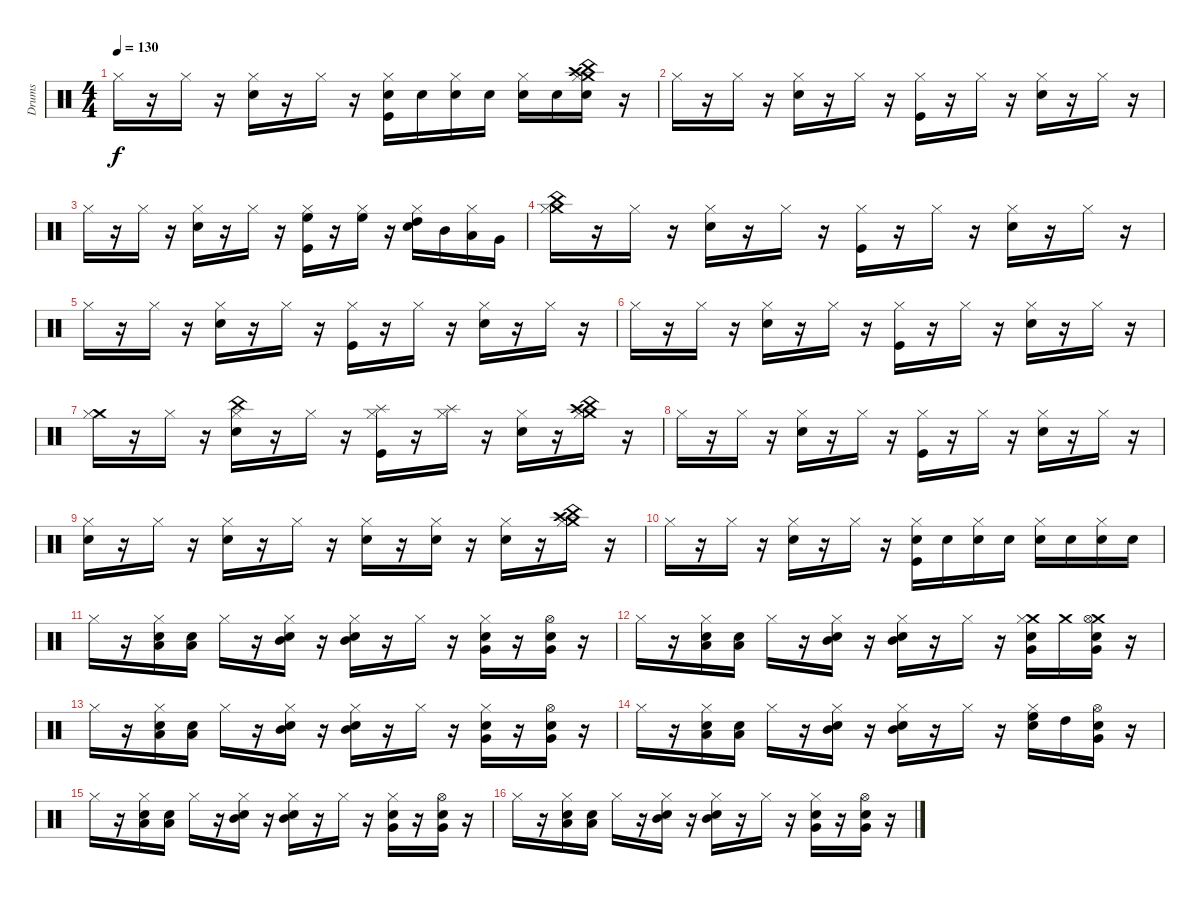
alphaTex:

\track ("Drums" "Drums") {instrument percussion}
\staff {score}
\articulation defaults
\ts (4 4)
\tempo 130
\clef neutral
\ks c "Hi-Hat (closed)".16{dy f}
r.16 "Hi-Hat (closed)".16 r.16 ("Snare (hit) 2" "Hi-Hat (closed)").16 r.16 "Hi-Hat (closed)".16 r.16 ("Electric Snare (hit)" "Kick (hit)" "Hi-Hat (closed)").16 "Snare (hit) 2".16 ("Electric Snare (hit)" "Hi-Hat (closed)").16 "Snare (hit) 2".16 ("Electric Snare (hit)" "Hi-Hat (closed)").16 "Electric Snare (hit)".16 ("Crash high (hit)" "China (hit)" "Crash medium (hit)" "Snare (hit) 2" "Hi-Hat (closed)").16 r.16 |
"Hi-Hat (closed)".16 r.16 "Hi-Hat (closed)".16 r.16 ("Snare (hit) 2" "Hi-Hat (closed)").16 r.16 "Hi-Hat (closed)".16 r.16 ("Kick (hit)" "Hi-Hat (closed)").16 r.16 "Hi-Hat (closed)".16 r.16 ("Snare (hit) 2" "Hi-Hat (closed)").16 r.16 "Hi-Hat (closed)".16 r.16 |
"Hi-Hat (closed)".16 r.16 "Hi-Hat (closed)".16 r.16 ("Snare (hit) 2" "Hi-Hat (closed)").16 r.16 "Hi-Hat (closed)".16 r.16 ("High Floor Tom (hit)" "Kick (hit)" "Hi-Hat (closed)").16 r.16 ("High Floor Tom (hit)" "Hi-Hat (closed)").16 r.16 ("High Tom (hit)" "Snare (hit) 2" "Hi-Hat (closed)").16 "Mid Tom (hit)".16 ("Low Tom (hit)" "Hi-Hat (closed)").16 "Very Low Tom (hit)".16 |
("China (hit)" "Crash medium (hit)" "Hi-Hat (closed)").16 r.16 "Hi-Hat (closed)".16 r.16 ("Snare (hit) 2" "Hi-Hat (closed)").16 r.16 "Hi-Hat (closed)".16 r.16 ("Kick (hit)" "Hi-Hat (closed)").16 r.16 "Hi-Hat (closed)".16 r.16 ("Snare (hit) 2" "Hi-Hat (closed)").16 r.16 "Hi-Hat (closed)".16 r.16 |
"Hi-Hat (closed)".16 r.16 "Hi-Hat (closed)".16 r.16 ("Snare (hit) 2" "Hi-Hat (closed)").16 r.16 "Hi-Hat (closed)".16 r.16 ("Kick (hit)" "Hi-Hat (closed)").16 r.16 "Hi-Hat (closed)".16 r.16 ("Snare (hit) 2" "Hi-Hat (closed)").16 r.16 "Hi-Hat (closed)".16 r.16 |
"Hi-Hat (closed)".16 r.16 "Hi-Hat (closed)".16 r.16 ("Snare (hit) 2" "Hi-Hat (closed)").16 r.16 "Hi-Hat (closed)".16 r.16 ("Kick (hit)" "Hi-Hat (closed)").16 r.16 "Hi-Hat (closed)".16 r.16 ("Snare (hit) 2" "Hi-Hat (closed)").16 r.16 "Hi-Hat (closed)".16 r.16 |
("Crash medium (hit)" "Hi-Hat (closed)").16 r.16 "Hi-Hat (closed)".16 r.16 ("China (hit)" "Snare (hit) 2" "Hi-Hat (closed)").16 r.16 "Hi-Hat (closed)".16 r.16 ("Splash (hit)" "Kick (hit)" "Hi-Hat (closed)").16 r.16 ("Splash (hit)" "Hi-Hat (closed)").16 r.16 ("Snare (hit) 2" "Hi-Hat (closed)").16 r.16 ("Crash high (hit)" "China (hit)" "Crash medium (hit)" "Hi-Hat (closed)").16 r.16 |
"Hi-Hat (closed)".16 r.16 "Hi-Hat (closed)".16 r.16 ("Snare (hit) 2" "Hi-Hat (closed)").16 r.16 "Hi-Hat (closed)".16 r.16 ("Kick (hit)" "Hi-Hat (closed)").16 r.16 "Hi-Hat (closed)".16 r.16 ("Snare (hit) 2" "Hi-Hat (closed)").16 r.16 "Hi-Hat (closed)".16 r.16 |
("Snare (hit) 2" "Hi-Hat (closed)").16 r.16 "Hi-Hat (closed)".16 r.16 ("Snare (hit) 2" "Hi-Hat (closed)").16 r.16 "Hi-Hat (closed)".16 r.16 ("Snare (hit) 2" "Hi-Hat (closed)").16 r.16 ("Snare (hit) 2" "Hi-Hat (closed)").16 r.16 ("Snare (hit) 2" "Hi-Hat (closed)").16 r.16 ("Crash high (hit)" "China (hit)" "Crash medium (hit)" "Hi-Hat (closed)").16 r.16 |
"Hi-Hat (closed)".16 r.16 "Hi-Hat (closed)".16 r.16 ("Snare (hit) 2" "Hi-Hat (closed)").16 r.16 "Hi-Hat (closed)".16 r.16 ("Electric Snare (hit)" "Kick (hit)" "Hi-Hat (closed)").16 "Electric Snare (hit)".16 ("Snare (hit) 2" "Hi-Hat (closed)").16 "Electric Snare (hit)".16 ("Snare (hit) 2" "Hi-Hat (closed)").16 "Electric Snare (hit)".16 ("Snare (hit) 2" "Hi-Hat (closed)").16 "Electric Snare (hit)".16 |
"Hi-Hat (closed)".16 r.16 ("Hi-Hat (closed)" "Electric Snare (hit)" "Low Tom (hit)").16 ("Electric Snare (hit)" "Low Tom (hit)").16 "Hi-Hat (closed)".16 r.16 ("Hi-Hat (closed)" "Mid Tom (hit)" "Electric Snare (hit)").16 r.16 ("Hi-Hat (closed)" "Mid Tom (hit)" "Electric Snare (hit)").16 r.16 "Hi-Hat (closed)".16 r.16 ("Hi-Hat (closed)" "Very Low Tom (hit)" "Electric Snare (hit)").16 r.16 ("Hi-Hat (open)" "Very Low Tom (hit)" "Electric Snare (hit)").16 r.16 |
"Hi-Hat (closed)".16 r.16 ("Hi-Hat (closed)" "Electric Snare (hit)" "Low Tom (hit)").16 ("Electric Snare (hit)" "Low Tom (hit)").16 "Hi-Hat (closed)".16 r.16 ("Hi-Hat (closed)" "Mid Tom (hit)" "Electric Snare (hit)").16 r.16 ("Hi-Hat (closed)" "Mid Tom (hit)" "Electric Snare (hit)").16 r.16 "Hi-Hat (closed)".16 r.16 ("Crash medium (hit)" "Hi-Hat (closed)" "Very Low Tom (hit)" "Electric Snare (hit)").16 "Crash medium (hit)".16 ("Crash medium (hit)" "Hi-Hat (open)" "Very Low Tom (hit)" "Electric Snare (hit)").16 r.16 |
"Hi-Hat (closed)".16 r.16 ("Hi-Hat (closed)" "Electric Snare (hit)" "Low Tom (hit)").16 ("Electric Snare (hit)" "Low Tom (hit)").16 "Hi-Hat (closed)".16 r.16 ("Hi-Hat (closed)" "Mid Tom (hit)" "Electric Snare (hit)").16 r.16 ("Hi-Hat (closed)" "Mid Tom (hit)" "Electric Snare (hit)").16 r.16 "Hi-Hat (closed)".16 r.16 ("Hi-Hat (closed)" "Very Low Tom (hit)" "Electric Snare (hit)").16 r.16 ("Hi-Hat (open)" "Very Low Tom (hit)" "Electric Snare (hit)").16 r.16 |
"Hi-Hat (closed)".16 r.16 ("Hi-Hat (closed)" "Electric Snare (hit)" "Low Tom (hit)").16 ("Electric Snare (hit)" "Low Tom (hit)").16 "Hi-Hat (closed)".16 r.16 ("Hi-Hat (closed)" "Mid Tom (hit)" "Electric Snare (hit)").16 r.16 ("Hi-Hat (closed)" "Mid Tom (hit)" "Electric Snare (hit)").16 r.16 "Hi-Hat (closed)".16 r.16 ("High Floor Tom (hit)" "Hi-Hat (closed)" "Electric Snare (hit)").16 "High Tom (hit)".16 ("Hi-Hat (open)" "Very Low Tom (hit)" "Electric Snare (hit)").16 r.16 |
"Hi-Hat (closed)".16 r.16 ("Hi-Hat (closed)" "Electric Snare (hit)" "Low Tom (hit)").16 ("Electric Snare (hit)" "Low Tom (hit)").16 "Hi-Hat (closed)".16 r.16 ("Hi-Hat (closed)" "Mid Tom (hit)" "Electric Snare (hit)").16 r.16 ("Hi-Hat (closed)" "Mid Tom (hit)" "Electric Snare (hit)").16 r.16 "Hi-Hat (closed)".16 r.16 ("Hi-Hat (closed)" "Very Low Tom (hit)" "Electric Snare (hit)").16 r.16 ("Hi-Hat (open)" "Very Low Tom (hit)" "Electric Snare (hit)").16 r.16 |
"Hi-Hat (closed)".16 r.16 ("Hi-Hat (closed)" "Electric Snare (hit)" "Low Tom (hit)").16 ("Electric Snare (hit)" "Low Tom (hit)").16 "Hi-Hat (closed)".16 r.16 ("Hi-Hat (closed)" "Mid Tom (hit)" "Electric Snare (hit)").16 r.16 ("Hi-Hat (closed)" "Mid Tom (hit)" "Electric Snare (hit)").16 r.16 "Hi-Hat (closed)".16 r.16 ("Hi-Hat (closed)" "Very Low Tom (hit)" "Electric Snare (hit)").16 r.16 ("Hi-Hat (open)" "Very Low Tom (hit)" "Electric Snare (hit)").16 r.16
